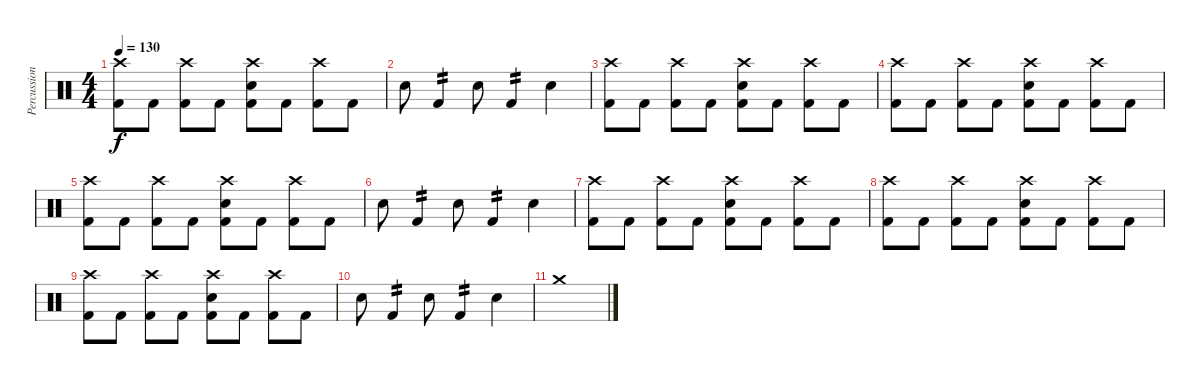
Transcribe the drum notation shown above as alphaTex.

\track ("Percussion" "Percussion") {instrument percussion}
\staff {score}
\articulation defaults
\ts (4 4)
\tempo 130
\clef neutral
\ks c
("Crash high (hit)" "Kick (hit) 2").8{dy f} "Kick (hit) 2".8 ("Crash high (hit)" "Kick (hit) 2").8 "Kick (hit) 2".8 ("Crash high (hit)" "Electric Snare (hit)" "Kick (hit) 2").8 "Kick (hit) 2".8 ("Crash high (hit)" "Kick (hit) 2").8 "Kick (hit) 2".8 |
"Electric Snare (hit)".8 "Kick (hit) 2".4{tp 2} "Electric Snare (hit)".8 "Kick (hit) 2".4{tp 2} "Electric Snare (hit)".4 |
("Crash high (hit)" "Kick (hit) 2").8 "Kick (hit) 2".8 ("Crash high (hit)" "Kick (hit) 2").8 "Kick (hit) 2".8 ("Crash high (hit)" "Electric Snare (hit)" "Kick (hit) 2").8 "Kick (hit) 2".8 ("Crash high (hit)" "Kick (hit) 2").8 "Kick (hit) 2".8 |
("Crash high (hit)" "Kick (hit) 2").8 "Kick (hit) 2".8 ("Crash high (hit)" "Kick (hit) 2").8 "Kick (hit) 2".8 ("Crash high (hit)" "Electric Snare (hit)" "Kick (hit) 2").8 "Kick (hit) 2".8 ("Crash high (hit)" "Kick (hit) 2").8 "Kick (hit) 2".8 |
("Crash high (hit)" "Kick (hit) 2").8 "Kick (hit) 2".8 ("Crash high (hit)" "Kick (hit) 2").8 "Kick (hit) 2".8 ("Crash high (hit)" "Electric Snare (hit)" "Kick (hit) 2").8 "Kick (hit) 2".8 ("Crash high (hit)" "Kick (hit) 2").8 "Kick (hit) 2".8 |
"Electric Snare (hit)".8 "Kick (hit) 2".4{tp 2} "Electric Snare (hit)".8 "Kick (hit) 2".4{tp 2} "Electric Snare (hit)".4 |
("Crash high (hit)" "Kick (hit) 2").8 "Kick (hit) 2".8 ("Crash high (hit)" "Kick (hit) 2").8 "Kick (hit) 2".8 ("Crash high (hit)" "Electric Snare (hit)" "Kick (hit) 2").8 "Kick (hit) 2".8 ("Crash high (hit)" "Kick (hit) 2").8 "Kick (hit) 2".8 |
("Crash high (hit)" "Kick (hit) 2").8 "Kick (hit) 2".8 ("Crash high (hit)" "Kick (hit) 2").8 "Kick (hit) 2".8 ("Crash high (hit)" "Electric Snare (hit)" "Kick (hit) 2").8 "Kick (hit) 2".8 ("Crash high (hit)" "Kick (hit) 2").8 "Kick (hit) 2".8 |
("Crash high (hit)" "Kick (hit) 2").8 "Kick (hit) 2".8 ("Crash high (hit)" "Kick (hit) 2").8 "Kick (hit) 2".8 ("Crash high (hit)" "Electric Snare (hit)" "Kick (hit) 2").8 "Kick (hit) 2".8 ("Crash high (hit)" "Kick (hit) 2").8 "Kick (hit) 2".8 |
"Electric Snare (hit)".8 "Kick (hit) 2".4{tp 2} "Electric Snare (hit)".8 "Kick (hit) 2".4{tp 2} "Electric Snare (hit)".4 |
"Crash medium (hit)".1
